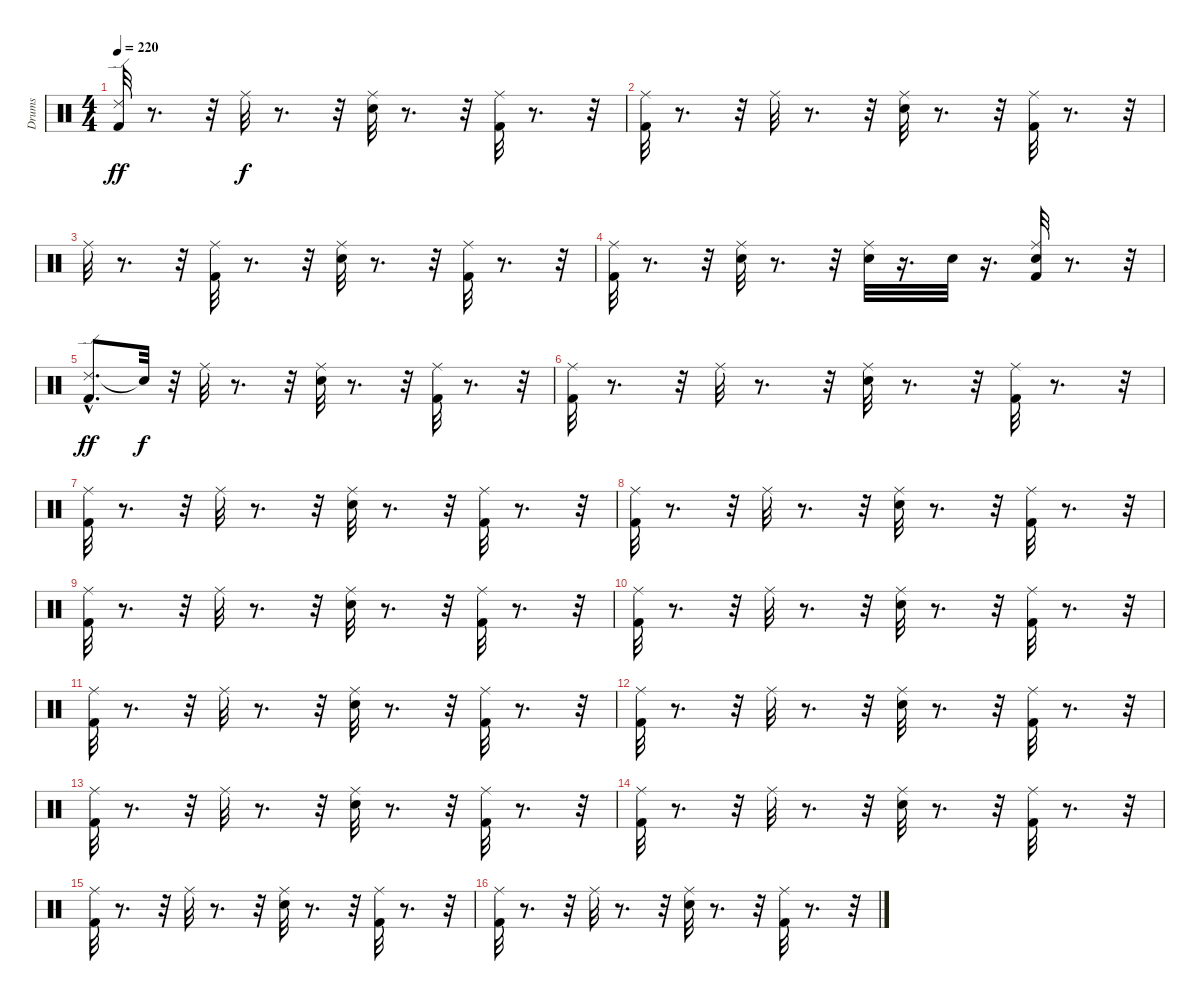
\track ("Drums" "Drums") {instrument percussion}
\staff {score}
\articulation defaults
\ts (4 4)
\tempo 220
\clef neutral
\ks c
("Ride (edge) 2" "Kick (hit) 2").32{dy ff} r.8{d} r.32 "Ride (middle)".32{dy f} r.8{d} r.32 ("Ride (middle)" "Snare (hit) 2").32 r.8{d} r.32 ("Ride (middle)" "Kick (hit) 2").32 r.8{d} r.32 |
("Ride (middle)" "Kick (hit) 2").32 r.8{d} r.32 "Ride (middle)".32 r.8{d} r.32 ("Ride (middle)" "Snare (hit) 2").32 r.8{d} r.32 ("Kick (hit) 2" "Ride (middle)").32 r.8{d} r.32 |
"Ride (middle)".32 r.8{d} r.32 ("Kick (hit) 2" "Ride (middle)").32 r.8{d} r.32 ("Ride (middle)" "Snare (hit) 2").32 r.8{d} r.32 ("Kick (hit) 2" "Ride (middle)").32 r.8{d} r.32 |
("Ride (middle)" "Kick (hit) 2").32 r.8{d} r.32 ("Snare (hit) 2" "Ride (middle)").32 r.8{d} r.32 ("Ride (middle)" "Snare (hit) 2").32 r.16{d} "Snare (hit) 2".32 r.16{d} ("Snare (hit) 2" "Ride (middle)" "Kick (hit) 2").32 r.8{d} r.32 |
("Ride (edge) 2"{hac} "Kick (hit) 2").8{d dy ff} "Snare (hit)"{t}.32{dy f} r.32 "Ride (middle)".32 r.8{d} r.32 ("Ride (middle)" "Snare (hit) 2").32 r.8{d} r.32 ("Ride (middle)" "Kick (hit) 2").32 r.8{d} r.32 |
("Ride (middle)" "Kick (hit) 2").32 r.8{d} r.32 "Ride (middle)".32 r.8{d} r.32 ("Ride (middle)" "Snare (hit) 2").32 r.8{d} r.32 ("Ride (middle)" "Kick (hit) 2").32 r.8{d} r.32 |
("Ride (middle)" "Kick (hit) 2").32 r.8{d} r.32 "Ride (middle)".32 r.8{d} r.32 ("Ride (middle)" "Snare (hit) 2").32 r.8{d} r.32 ("Ride (middle)" "Kick (hit) 2").32 r.8{d} r.32 |
("Ride (middle)" "Kick (hit) 2").32 r.8{d} r.32 "Ride (middle)".32 r.8{d} r.32 ("Ride (middle)" "Snare (hit) 2").32 r.8{d} r.32 ("Ride (middle)" "Kick (hit) 2").32 r.8{d} r.32 |
("Ride (middle)" "Kick (hit) 2").32 r.8{d} r.32 "Ride (middle)".32 r.8{d} r.32 ("Ride (middle)" "Snare (hit) 2").32 r.8{d} r.32 ("Ride (middle)" "Kick (hit) 2").32 r.8{d} r.32 |
("Ride (middle)" "Kick (hit) 2").32 r.8{d} r.32 "Ride (middle)".32 r.8{d} r.32 ("Ride (middle)" "Snare (hit) 2").32 r.8{d} r.32 ("Ride (middle)" "Kick (hit) 2").32 r.8{d} r.32 |
("Ride (middle)" "Kick (hit) 2").32 r.8{d} r.32 "Ride (middle)".32 r.8{d} r.32 ("Ride (middle)" "Snare (hit) 2").32 r.8{d} r.32 ("Ride (middle)" "Kick (hit) 2").32 r.8{d} r.32 |
("Ride (middle)" "Kick (hit) 2").32 r.8{d} r.32 "Ride (middle)".32 r.8{d} r.32 ("Ride (middle)" "Snare (hit) 2").32 r.8{d} r.32 ("Ride (middle)" "Kick (hit) 2").32 r.8{d} r.32 |
("Ride (middle)" "Kick (hit) 2").32 r.8{d} r.32 "Ride (middle)".32 r.8{d} r.32 ("Ride (middle)" "Snare (hit) 2").32 r.8{d} r.32 ("Ride (middle)" "Kick (hit) 2").32 r.8{d} r.32 |
("Ride (middle)" "Kick (hit) 2").32 r.8{d} r.32 "Ride (middle)".32 r.8{d} r.32 ("Ride (middle)" "Snare (hit) 2").32 r.8{d} r.32 ("Ride (middle)" "Kick (hit) 2").32 r.8{d} r.32 |
("Ride (middle)" "Kick (hit) 2").32 r.8{d} r.32 "Ride (middle)".32 r.8{d} r.32 ("Ride (middle)" "Snare (hit) 2").32 r.8{d} r.32 ("Ride (middle)" "Kick (hit) 2").32 r.8{d} r.32 |
("Ride (middle)" "Kick (hit) 2").32 r.8{d} r.32 "Ride (middle)".32 r.8{d} r.32 ("Ride (middle)" "Snare (hit) 2").32 r.8{d} r.32 ("Ride (middle)" "Kick (hit) 2").32 r.8{d} r.32
